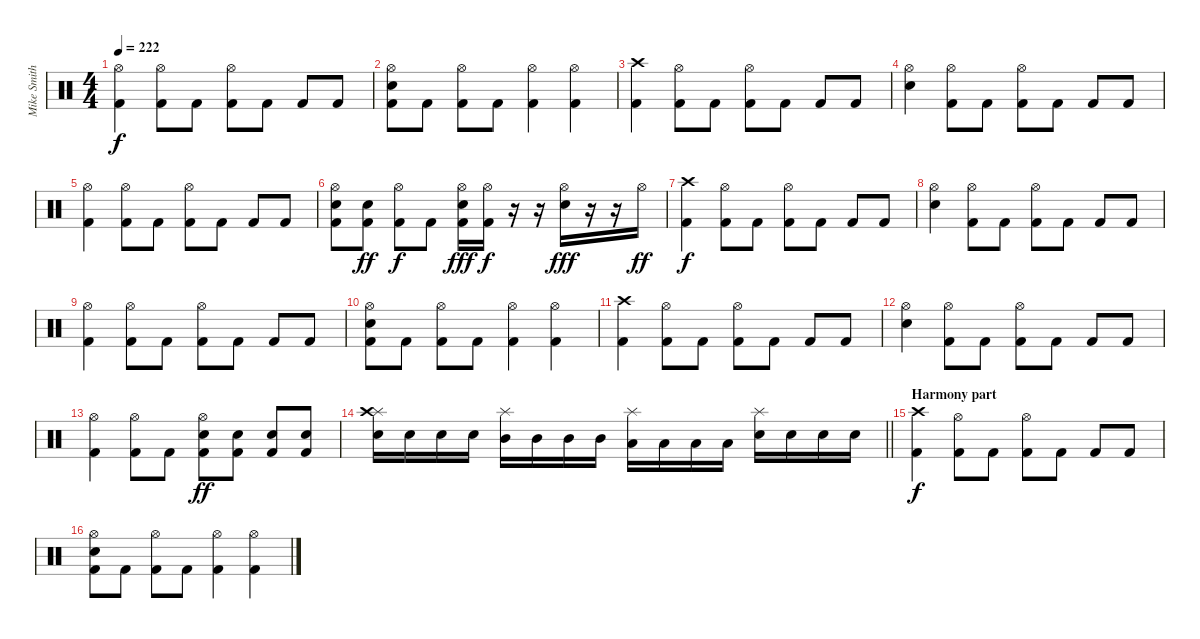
\track ("Mike Smith (Suffocation)" "Mike Smith") {instrument percussion}
\staff {score}
\articulation defaults
\ts (4 4)
\tempo 222
\clef neutral
\ks c
("Hi-Hat (open)" "Kick (hit) 2").4{dy f} ("Hi-Hat (open)" "Kick (hit) 2").8 "Kick (hit) 2".8 ("Hi-Hat (open)" "Kick (hit) 2").8 "Kick (hit) 2".8 "Kick (hit) 2".8 "Kick (hit) 2".8 |
("Hi-Hat (open)" "Snare (hit) 2" "Kick (hit) 2").8 "Kick (hit) 2".8 ("Hi-Hat (open)" "Kick (hit) 2").8 "Kick (hit) 2".8 ("Hi-Hat (open)" "Kick (hit) 2").4 ("Hi-Hat (open)" "Kick (hit) 2").4 |
("Crash high (hit)" "Kick (hit) 2").4 ("Hi-Hat (open)" "Kick (hit) 2").8 "Kick (hit) 2".8 ("Hi-Hat (open)" "Kick (hit) 2").8 "Kick (hit) 2".8 "Kick (hit) 2".8 "Kick (hit) 2".8 |
("Hi-Hat (open)" "Snare (hit) 2").4 ("Hi-Hat (open)" "Kick (hit) 2").8 "Kick (hit) 2".8 ("Hi-Hat (open)" "Kick (hit) 2").8 "Kick (hit) 2".8 "Kick (hit) 2".8 "Kick (hit) 2".8 |
("Hi-Hat (open)" "Kick (hit) 2").4 ("Hi-Hat (open)" "Kick (hit) 2").8 "Kick (hit) 2".8 ("Hi-Hat (open)" "Kick (hit) 2").8 "Kick (hit) 2".8 "Kick (hit) 2".8 "Kick (hit) 2".8 |
("Hi-Hat (open)" "Snare (hit) 2" "Kick (hit) 2").8 ("Snare (hit) 2" "Kick (hit) 2").8{dy ff} ("Hi-Hat (open)" "Kick (hit) 2").8{dy f} "Kick (hit) 2".8 ("Hi-Hat (open)" "Snare (hit) 2" "Kick (hit) 2").16{dy fff} ("Hi-Hat (open)" "Kick (hit) 2").16{dy f} r.16 r.16 ("Hi-Hat (open)" "Snare (hit) 2").16{dy fff} r.16 r.16 "Hi-Hat (open)".16{dy ff} |
("Crash high (hit)" "Kick (hit) 2").4{dy f} ("Hi-Hat (open)" "Kick (hit) 2").8 "Kick (hit) 2".8 ("Hi-Hat (open)" "Kick (hit) 2").8 "Kick (hit) 2".8 "Kick (hit) 2".8 "Kick (hit) 2".8 |
("Hi-Hat (open)" "Snare (hit) 2").4 ("Hi-Hat (open)" "Kick (hit) 2").8 "Kick (hit) 2".8 ("Hi-Hat (open)" "Kick (hit) 2").8 "Kick (hit) 2".8 "Kick (hit) 2".8 "Kick (hit) 2".8 |
("Hi-Hat (open)" "Kick (hit) 2").4 ("Hi-Hat (open)" "Kick (hit) 2").8 "Kick (hit) 2".8 ("Hi-Hat (open)" "Kick (hit) 2").8 "Kick (hit) 2".8 "Kick (hit) 2".8 "Kick (hit) 2".8 |
("Hi-Hat (open)" "Snare (hit) 2" "Kick (hit) 2").8 "Kick (hit) 2".8 ("Hi-Hat (open)" "Kick (hit) 2").8 "Kick (hit) 2".8 ("Hi-Hat (open)" "Kick (hit) 2").4 ("Hi-Hat (open)" "Kick (hit) 2").4 |
("Crash high (hit)" "Kick (hit) 2").4 ("Hi-Hat (open)" "Kick (hit) 2").8 "Kick (hit) 2".8 ("Hi-Hat (open)" "Kick (hit) 2").8 "Kick (hit) 2".8 "Kick (hit) 2".8 "Kick (hit) 2".8 |
("Hi-Hat (open)" "Snare (hit) 2").4 ("Hi-Hat (open)" "Kick (hit) 2").8 "Kick (hit) 2".8 ("Hi-Hat (open)" "Kick (hit) 2").8 "Kick (hit) 2".8 "Kick (hit) 2".8 "Kick (hit) 2".8 |
("Hi-Hat (open)" "Kick (hit) 2").4 ("Hi-Hat (open)" "Kick (hit) 2").8 "Kick (hit) 2".8 ("Hi-Hat (open)" "Snare (hit) 2" "Kick (hit) 2").8{dy ff} ("Snare (hit) 2" "Kick (hit) 2").8 ("Snare (hit) 2" "Kick (hit) 2").8 ("Snare (hit) 2" "Kick (hit) 2").8 |
\barLineRight lightlight
("Splash (hit)" "Crash high (hit)" "Snare (hit) 2").16 "Snare (hit) 2".16 "Snare (hit) 2".16 "Snare (hit) 2".16 ("Splash (hit)" "Mid Tom (hit)").16 "Mid Tom (hit)".16 "Mid Tom (hit)".16 "Mid Tom (hit)".16 ("Splash (hit)" "Low Tom (hit)").16 "Low Tom (hit)".16 "Low Tom (hit)".16 "Low Tom (hit)".16 ("Splash (hit)" "Snare (hit) 2").16 "Snare (hit) 2".16 "Snare (hit) 2".16 "Snare (hit) 2".16 |
\section ("" "Harmony part")
("Crash high (hit)" "Kick (hit) 2").4{dy f} ("Hi-Hat (open)" "Kick (hit) 2").8 "Kick (hit) 2".8 ("Hi-Hat (open)" "Kick (hit) 2").8 "Kick (hit) 2".8 "Kick (hit) 2".8 "Kick (hit) 2".8 |
("Hi-Hat (open)" "Snare (hit) 2" "Kick (hit) 2").8 "Kick (hit) 2".8 ("Hi-Hat (open)" "Kick (hit) 2").8 "Kick (hit) 2".8 ("Hi-Hat (open)" "Kick (hit) 2").4 ("Hi-Hat (open)" "Kick (hit) 2").4
